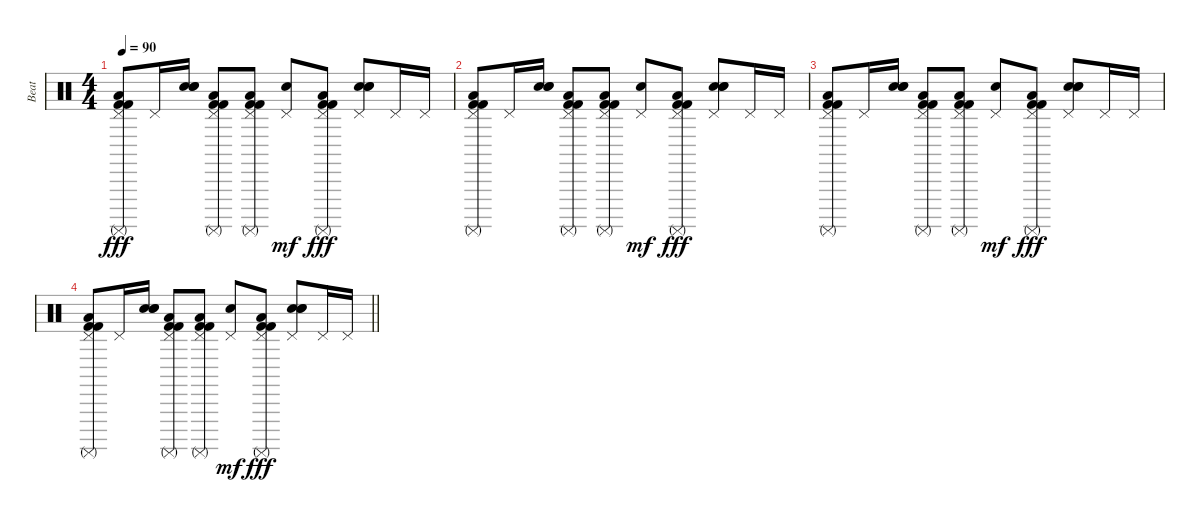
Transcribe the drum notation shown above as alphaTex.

\track ("Beat " "Beat ") {instrument percussion}
\staff {score}
\articulation defaults
\ts (4 4)
\tempo 90
\clef neutral
\ks c
("Pedal Hi-Hat (hit)" "Surdo (mute)" "Low Floor Tom (hit)" "Kick (hit) 2" "Kick (hit) 2").8{dy fff} "Pedal Hi-Hat (hit)".16 ("Electric Snare (hit)" "Electric Snare (hit)" "Electric Snare (hit)").16 ("Pedal Hi-Hat (hit)" "Surdo (mute)" "Low Floor Tom (hit)" "Kick (hit) 2" "Kick (hit) 2").8 ("Pedal Hi-Hat (hit)" "Surdo (mute)" "Low Floor Tom (hit)" "Kick (hit) 2" "Kick (hit) 2").8 ("Pedal Hi-Hat (hit)" "Electric Snare (hit)").8{dy mf} ("Pedal Hi-Hat (hit)" "Surdo (mute)" "Low Floor Tom (hit)" "Kick (hit) 2" "Kick (hit) 2").8{dy fff} ("Pedal Hi-Hat (hit)" "Electric Snare (hit)" "Electric Snare (hit)" "Electric Snare (hit)").8 "Pedal Hi-Hat (hit)".16 "Pedal Hi-Hat (hit)".16 |
("Pedal Hi-Hat (hit)" "Surdo (mute)" "Low Floor Tom (hit)" "Kick (hit) 2" "Kick (hit) 2").8 "Pedal Hi-Hat (hit)".16 ("Electric Snare (hit)" "Electric Snare (hit)" "Electric Snare (hit)").16 ("Pedal Hi-Hat (hit)" "Surdo (mute)" "Low Floor Tom (hit)" "Kick (hit) 2" "Kick (hit) 2").8 ("Pedal Hi-Hat (hit)" "Surdo (mute)" "Low Floor Tom (hit)" "Kick (hit) 2" "Kick (hit) 2").8 ("Pedal Hi-Hat (hit)" "Electric Snare (hit)").8{dy mf} ("Pedal Hi-Hat (hit)" "Surdo (mute)" "Low Floor Tom (hit)" "Kick (hit) 2" "Kick (hit) 2").8{dy fff} ("Pedal Hi-Hat (hit)" "Electric Snare (hit)" "Electric Snare (hit)" "Electric Snare (hit)").8 "Pedal Hi-Hat (hit)".16 "Pedal Hi-Hat (hit)".16 |
("Pedal Hi-Hat (hit)" "Surdo (mute)" "Low Floor Tom (hit)" "Kick (hit) 2" "Kick (hit) 2").8 "Pedal Hi-Hat (hit)".16 ("Electric Snare (hit)" "Electric Snare (hit)" "Electric Snare (hit)").16 ("Pedal Hi-Hat (hit)" "Surdo (mute)" "Low Floor Tom (hit)" "Kick (hit) 2" "Kick (hit) 2").8 ("Pedal Hi-Hat (hit)" "Surdo (mute)" "Low Floor Tom (hit)" "Kick (hit) 2" "Kick (hit) 2").8 ("Pedal Hi-Hat (hit)" "Electric Snare (hit)").8{dy mf} ("Pedal Hi-Hat (hit)" "Surdo (mute)" "Low Floor Tom (hit)" "Kick (hit) 2" "Kick (hit) 2").8{dy fff} ("Pedal Hi-Hat (hit)" "Electric Snare (hit)" "Electric Snare (hit)" "Electric Snare (hit)").8 "Pedal Hi-Hat (hit)".16 "Pedal Hi-Hat (hit)".16 |
\barLineRight lightlight
("Pedal Hi-Hat (hit)" "Surdo (mute)" "Low Floor Tom (hit)" "Kick (hit) 2" "Kick (hit) 2").8 "Pedal Hi-Hat (hit)".16 ("Electric Snare (hit)" "Electric Snare (hit)" "Electric Snare (hit)").16 ("Pedal Hi-Hat (hit)" "Surdo (mute)" "Low Floor Tom (hit)" "Kick (hit) 2" "Kick (hit) 2").8 ("Pedal Hi-Hat (hit)" "Surdo (mute)" "Low Floor Tom (hit)" "Kick (hit) 2" "Kick (hit) 2").8 ("Pedal Hi-Hat (hit)" "Electric Snare (hit)").8{dy mf} ("Pedal Hi-Hat (hit)" "Surdo (mute)" "Low Floor Tom (hit)" "Kick (hit) 2" "Kick (hit) 2").8{dy fff} ("Pedal Hi-Hat (hit)" "Electric Snare (hit)" "Electric Snare (hit)" "Electric Snare (hit)").8 "Pedal Hi-Hat (hit)".16 "Pedal Hi-Hat (hit)".16
